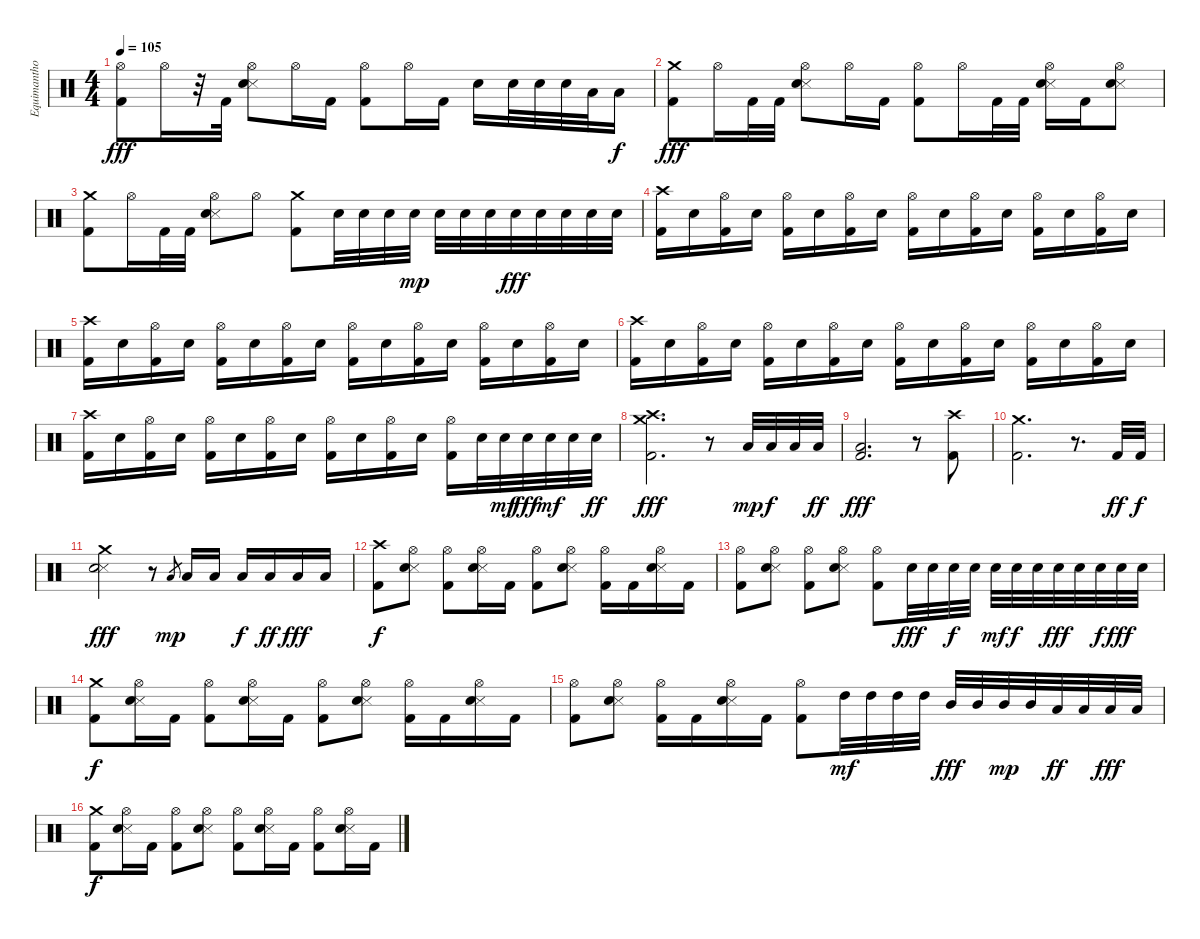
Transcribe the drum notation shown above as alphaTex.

\track ("Equimanthorn" "Equimantho") {instrument percussion}
\staff {score}
\articulation defaults
\ts (4 4)
\tempo 105
\clef neutral
\ks c
("Hi-Hat (open)" "Kick (hit) 2").8{dy fff} "Hi-Hat (open)".16 r.32 "Kick (hit) 2".32 ("Hi-Hat (open)" "Snare (side stick) 3" "Snare (hit) 2").8 "Hi-Hat (open)".16 "Kick (hit) 2".16 ("Hi-Hat (open)" "Kick (hit) 2").8 "Hi-Hat (open)".16 "Kick (hit) 2".16 "Snare (hit) 2".16 "Snare (hit) 2".32 "Snare (hit) 2".32 "Snare (hit) 2".32 "Low Tom (hit)".32 "Low Tom (hit)".16{dy f} |
("Crash medium (hit)" "Kick (hit) 2").8{dy fff} "Hi-Hat (open)".16 "Kick (hit) 2".32 "Kick (hit) 2".32 ("Hi-Hat (open)" "Snare (side stick) 3" "Snare (hit) 2").8 "Hi-Hat (open)".16 "Kick (hit) 2".16 ("Hi-Hat (open)" "Kick (hit) 2").8 "Hi-Hat (open)".16 "Kick (hit) 2".32 "Kick (hit) 2".32 ("Hi-Hat (open)" "Snare (side stick) 3" "Snare (hit) 2").16 "Kick (hit) 2".16 ("Hi-Hat (open)" "Snare (side stick) 3" "Snare (hit) 2").8 |
("Crash medium (hit)" "Kick (hit) 2").8 "Hi-Hat (open)".16 "Kick (hit) 2".32 "Kick (hit) 2".32 ("Hi-Hat (open)" "Snare (side stick) 3" "Snare (hit) 2").8 "Hi-Hat (open)".8 ("Crash medium (hit)" "Kick (hit) 2").8 "Snare (hit) 2".32 "Snare (hit) 2".32 "Snare (hit) 2".32 "Snare (hit) 2".32{dy mp} "Snare (hit) 2".32 "Snare (hit) 2".32 "Snare (hit) 2".32 "Snare (hit) 2".32{dy fff} "Snare (hit) 2".32 "Snare (hit) 2".32 "Snare (hit) 2".32 "Snare (hit) 2".32 |
("Crash high (hit)" "Kick (hit) 2").16 "Snare (hit) 2".16 ("Hi-Hat (open)" "Kick (hit) 2").16 "Snare (hit) 2".16 ("Hi-Hat (open)" "Kick (hit) 2").16 "Snare (hit) 2".16 ("Hi-Hat (open)" "Kick (hit) 2").16 "Snare (hit) 2".16 ("Hi-Hat (open)" "Kick (hit) 2").16 "Snare (hit) 2".16 ("Hi-Hat (open)" "Kick (hit) 2").16 "Snare (hit) 2".16 ("Hi-Hat (open)" "Kick (hit) 2").16 "Snare (hit) 2".16 ("Hi-Hat (open)" "Kick (hit) 2").16 "Snare (hit) 2".16 |
("Crash high (hit)" "Kick (hit) 2").16 "Snare (hit) 2".16 ("Hi-Hat (open)" "Kick (hit) 2").16 "Snare (hit) 2".16 ("Hi-Hat (open)" "Kick (hit) 2").16 "Snare (hit) 2".16 ("Hi-Hat (open)" "Kick (hit) 2").16 "Snare (hit) 2".16 ("Hi-Hat (open)" "Kick (hit) 2").16 "Snare (hit) 2".16 ("Hi-Hat (open)" "Kick (hit) 2").16 "Snare (hit) 2".16 ("Hi-Hat (open)" "Kick (hit) 2").16 "Snare (hit) 2".16 ("Hi-Hat (open)" "Kick (hit) 2").16 "Snare (hit) 2".16 |
("Crash high (hit)" "Kick (hit) 2").16 "Snare (hit) 2".16 ("Hi-Hat (open)" "Kick (hit) 2").16 "Snare (hit) 2".16 ("Hi-Hat (open)" "Kick (hit) 2").16 "Snare (hit) 2".16 ("Hi-Hat (open)" "Kick (hit) 2").16 "Snare (hit) 2".16 ("Hi-Hat (open)" "Kick (hit) 2").16 "Snare (hit) 2".16 ("Hi-Hat (open)" "Kick (hit) 2").16 "Snare (hit) 2".16 ("Hi-Hat (open)" "Kick (hit) 2").16 "Snare (hit) 2".16 ("Hi-Hat (open)" "Kick (hit) 2").16 "Snare (hit) 2".16 |
("Crash high (hit)" "Kick (hit) 2").16 "Snare (hit) 2".16 ("Hi-Hat (open)" "Kick (hit) 2").16 "Snare (hit) 2".16 ("Hi-Hat (open)" "Kick (hit) 2").16 "Snare (hit) 2".16 ("Hi-Hat (open)" "Kick (hit) 2").16 "Snare (hit) 2".16 ("Hi-Hat (open)" "Kick (hit) 2").16 "Snare (hit) 2".16 ("Hi-Hat (open)" "Kick (hit) 2").16 "Snare (hit) 2".16 ("Hi-Hat (open)" "Kick (hit) 2").16 "Snare (hit) 2".32 "Snare (hit) 2".32{dy mf} "Snare (hit) 2".32{dy fff} "Snare (hit) 2".32{dy mf} "Snare (hit) 2".32 "Snare (hit) 2".32{dy ff} |
("Crash medium (hit)" "Crash high (hit)" "Kick (hit) 2").2{d dy fff} r.8 "Low Floor Tom (hit)".32{dy mp} "Low Floor Tom (hit)".32{dy f} "Low Floor Tom (hit)".32 "Low Floor Tom (hit)".32{dy ff} |
("Low Floor Tom (hit)" "Kick (hit) 2").2{d dy fff} r.8 ("Crash high (hit)" "Kick (hit) 2").8 |
("Crash medium (hit)" "Kick (hit) 2").2{d} r.8{d} "Kick (hit) 2".32{dy ff} "Kick (hit) 2".32{dy f} |
("Crash medium (hit)" "Snare (side stick) 3" "Snare (hit) 2").2{dy fff} r.8 "Low Floor Tom (hit)".8{gr dy mp} "Low Floor Tom (hit)".16 "Low Floor Tom (hit)".16 "Low Floor Tom (hit)".16{dy f} "Low Floor Tom (hit)".16{dy ff} "Low Floor Tom (hit)".16{dy fff} "Low Floor Tom (hit)".16 |
("Crash high (hit)" "Kick (hit) 2").8{dy f} ("Hi-Hat (open)" "Snare (side stick) 3" "Snare (hit) 2").8 ("Hi-Hat (open)" "Kick (hit) 2").8 ("Hi-Hat (open)" "Snare (side stick) 3" "Snare (hit) 2").16 "Kick (hit) 2".16 ("Hi-Hat (open)" "Kick (hit) 2").8 ("Hi-Hat (open)" "Snare (side stick) 3" "Snare (hit) 2").8 ("Hi-Hat (open)" "Kick (hit) 2").16 "Kick (hit) 2".16 ("Hi-Hat (open)" "Snare (side stick) 3" "Snare (hit) 2").16 "Kick (hit) 2".16 |
("Hi-Hat (open)" "Kick (hit) 2").8 ("Hi-Hat (open)" "Snare (side stick) 3" "Snare (hit) 2").8 ("Hi-Hat (open)" "Kick (hit) 2").8 ("Hi-Hat (open)" "Snare (side stick) 3" "Snare (hit) 2").8 ("Hi-Hat (open)" "Kick (hit) 2").8 "Snare (hit) 2".32{dy fff} "Snare (hit) 2".32 "Snare (hit) 2".32{dy f} "Snare (hit) 2".32 "Snare (hit) 2".32{dy mf} "Snare (hit) 2".32{dy f} "Snare (hit) 2".32 "Snare (hit) 2".32{dy fff} "Snare (hit) 2".32 "Snare (hit) 2".32{dy f} "Snare (hit) 2".32{dy fff} "Snare (hit) 2".32 |
("Crash medium (hit)" "Kick (hit) 2").8{dy f} ("Hi-Hat (open)" "Snare (side stick) 3" "Snare (hit) 2").16 "Kick (hit) 2".16 ("Hi-Hat (open)" "Kick (hit) 2").8 ("Hi-Hat (open)" "Snare (side stick) 3" "Snare (hit) 2").16 "Kick (hit) 2".16 ("Hi-Hat (open)" "Kick (hit) 2").8 ("Hi-Hat (open)" "Snare (side stick) 3" "Snare (hit) 2").8 ("Hi-Hat (open)" "Kick (hit) 2").16 "Kick (hit) 2".16 ("Hi-Hat (open)" "Snare (side stick) 3" "Snare (hit) 2").16 "Kick (hit) 2".16 |
("Hi-Hat (open)" "Kick (hit) 2").8 ("Hi-Hat (open)" "Snare (side stick) 3" "Snare (hit) 2").8 ("Hi-Hat (open)" "Kick (hit) 2").16 "Kick (hit) 2".16 ("Hi-Hat (open)" "Snare (side stick) 3" "Snare (hit) 2").16 "Kick (hit) 2".16 ("Hi-Hat (open)" "Kick (hit) 2").8 "High Tom (hit)".32{dy mf} "High Tom (hit)".32 "High Tom (hit)".32 "High Tom (hit)".32 "Mid Tom (hit)".32{dy fff} "Mid Tom (hit)".32 "Mid Tom (hit)".32{dy mp} "Mid Tom (hit)".32 "Low Tom (hit)".32{dy ff} "Low Tom (hit)".32 "Low Tom (hit)".32{dy fff} "Low Tom (hit)".32 |
("Crash medium (hit)" "Kick (hit) 2").8{dy f} ("Hi-Hat (open)" "Snare (side stick) 3" "Snare (hit) 2").16 "Kick (hit) 2".16 ("Hi-Hat (open)" "Kick (hit) 2").8 ("Hi-Hat (open)" "Snare (side stick) 3" "Snare (hit) 2").8 ("Hi-Hat (open)" "Kick (hit) 2").8 ("Hi-Hat (open)" "Snare (side stick) 3" "Snare (hit) 2").16 "Kick (hit) 2".16 ("Hi-Hat (open)" "Kick (hit) 2").8 ("Hi-Hat (open)" "Snare (side stick) 3" "Snare (hit) 2").16 "Kick (hit) 2".16
